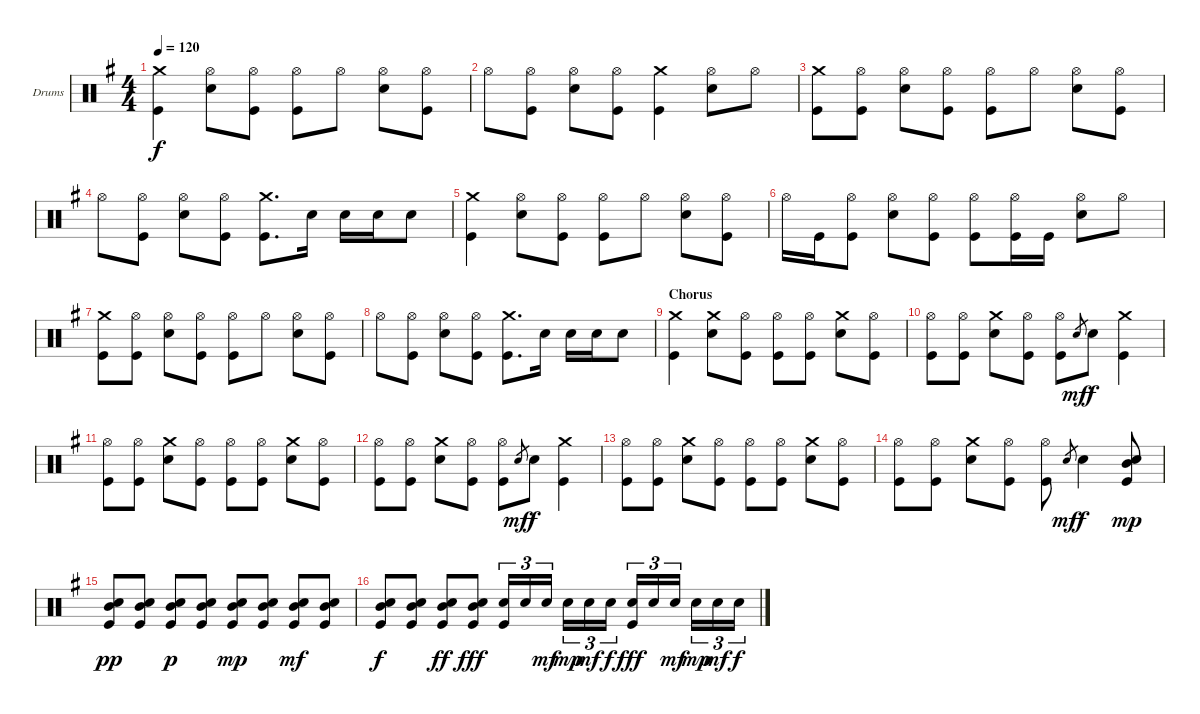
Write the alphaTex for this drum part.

\defaultSystemsLayout 4
\bracketExtendMode groupsimilarinstruments
\firstSystemTrackNameOrientation horizontal
\otherSystemsTrackNameOrientation horizontal
\track ("Drumkit" "Drums") {instrument percussion}
\staff {score}
\articulation defaults
\ts (4 4)
\tempo 120
\clef neutral
\scale
1.04288
\ks g
("Crash medium (hit)" "Kick (hit)").4{dy f} ("Hi-Hat (open)" "Snare (hit) 2").8 ("Hi-Hat (open)" "Kick (hit)").8 ("Hi-Hat (open)" "Kick (hit)").8 "Hi-Hat (open)".8 ("Hi-Hat (open)" "Snare (hit) 2").8 ("Hi-Hat (open)" "Kick (hit)").8 |
\scale
0.957125 "Hi-Hat (open)".8 ("Hi-Hat (open)" "Kick (hit)").8 ("Hi-Hat (open)" "Snare (hit) 2").8 ("Hi-Hat (open)" "Kick (hit)").8 ("Crash medium (hit)" "Kick (hit)").4 ("Hi-Hat (open)" "Snare (hit) 2").8 "Hi-Hat (open)".8 |
\scale
1.04288 ("Crash medium (hit)" "Kick (hit)").8 ("Hi-Hat (open)" "Kick (hit)").8 ("Hi-Hat (open)" "Snare (hit) 2").8 ("Hi-Hat (open)" "Kick (hit)").8 ("Hi-Hat (open)" "Kick (hit)").8 "Hi-Hat (open)".8 ("Hi-Hat (open)" "Snare (hit) 2").8 ("Hi-Hat (open)" "Kick (hit)").8 |
\scale
0.957125 "Hi-Hat (open)".8 ("Hi-Hat (open)" "Kick (hit)").8 ("Hi-Hat (open)" "Snare (hit) 2").8 ("Hi-Hat (open)" "Kick (hit)").8 ("Crash medium (hit)" "Kick (hit)").8{d} "Snare (hit) 2".16 "Snare (hit) 2".16 "Snare (hit) 2".16 "Snare (hit) 2".8 |
\scale
1.04288 ("Crash medium (hit)" "Kick (hit)").4 ("Hi-Hat (open)" "Snare (hit) 2").8 ("Hi-Hat (open)" "Kick (hit)").8 ("Hi-Hat (open)" "Kick (hit)").8 "Hi-Hat (open)".8 ("Hi-Hat (open)" "Snare (hit) 2").8 ("Hi-Hat (open)" "Kick (hit)").8 |
\scale
0.957125 "Hi-Hat (open)".16 "Kick (hit)".16 ("Hi-Hat (open)" "Kick (hit)").8 ("Hi-Hat (open)" "Snare (hit) 2").8 ("Hi-Hat (open)" "Kick (hit)").8 ("Hi-Hat (open)" "Kick (hit)").8 ("Hi-Hat (open)" "Kick (hit)").16 "Kick (hit)".16 ("Hi-Hat (open)" "Snare (hit) 2").8 "Hi-Hat (open)".8 |
\scale
1.04288 ("Crash medium (hit)" "Kick (hit)").8 ("Hi-Hat (open)" "Kick (hit)").8 ("Hi-Hat (open)" "Snare (hit) 2").8 ("Hi-Hat (open)" "Kick (hit)").8 ("Hi-Hat (open)" "Kick (hit)").8 "Hi-Hat (open)".8 ("Hi-Hat (open)" "Snare (hit) 2").8 ("Hi-Hat (open)" "Kick (hit)").8 |
\scale
0.957125 "Hi-Hat (open)".8 ("Hi-Hat (open)" "Kick (hit)").8 ("Hi-Hat (open)" "Snare (hit) 2").8 ("Hi-Hat (open)" "Kick (hit)").8 ("Crash medium (hit)" "Kick (hit)").8{d} "Snare (hit) 2".16 "Snare (hit) 2".16 "Snare (hit) 2".16 "Snare (hit) 2".8 |
\section ("" "Chorus")
\scale
1.04288 ("Crash medium (hit)" "Kick (hit)").4 ("Crash medium (hit)" "Snare (hit) 2").8 ("Hi-Hat (open)" "Kick (hit)").8 ("Hi-Hat (open)" "Kick (hit)").8 ("Hi-Hat (open)" "Kick (hit)").8 ("Crash medium (hit)" "Snare (hit) 2").8 ("Hi-Hat (open)" "Kick (hit)").8 |
\scale
0.957125 ("Hi-Hat (open)" "Kick (hit)").8 ("Hi-Hat (open)" "Kick (hit)").8 ("Crash medium (hit)" "Snare (hit) 2").8 ("Hi-Hat (open)" "Kick (hit)").8 ("Hi-Hat (open)" "Kick (hit)").8 "Snare (hit) 2".8{gr dy mf} "Snare (hit) 2".8{dy f} ("Crash medium (hit)" "Kick (hit)").4 |
\scale
1.04288 ("Hi-Hat (open)" "Kick (hit)").8 ("Hi-Hat (open)" "Kick (hit)").8 ("Crash medium (hit)" "Snare (hit) 2").8 ("Hi-Hat (open)" "Kick (hit)").8 ("Hi-Hat (open)" "Kick (hit)").8 ("Hi-Hat (open)" "Kick (hit)").8 ("Crash medium (hit)" "Snare (hit) 2").8 ("Hi-Hat (open)" "Kick (hit)").8 |
\scale
0.957125 ("Hi-Hat (open)" "Kick (hit)").8 ("Hi-Hat (open)" "Kick (hit)").8 ("Crash medium (hit)" "Snare (hit) 2").8 ("Hi-Hat (open)" "Kick (hit)").8 ("Hi-Hat (open)" "Kick (hit)").8 "Snare (hit) 2".8{gr dy mf} "Snare (hit) 2".8{dy f} ("Crash medium (hit)" "Kick (hit)").4 |
\scale
1.04288 ("Hi-Hat (open)" "Kick (hit)").8 ("Hi-Hat (open)" "Kick (hit)").8 ("Crash medium (hit)" "Snare (hit) 2").8 ("Hi-Hat (open)" "Kick (hit)").8 ("Hi-Hat (open)" "Kick (hit)").8 ("Hi-Hat (open)" "Kick (hit)").8 ("Crash medium (hit)" "Snare (hit) 2").8 ("Hi-Hat (open)" "Kick (hit)").8 |
\scale
0.957125 ("Hi-Hat (open)" "Kick (hit)").8 ("Hi-Hat (open)" "Kick (hit)").8 ("Crash medium (hit)" "Snare (hit) 2").8 ("Hi-Hat (open)" "Kick (hit)").8 ("Hi-Hat (open)" "Kick (hit)").8 "Snare (hit) 2".8{gr dy mf} "Snare (hit) 2".4{dy f} ("Mid Tom (hit)" "Snare (hit) 2" "Kick (hit)").8{dy mp} |
\scale
1.04288 ("Mid Tom (hit)" "Snare (hit) 2" "Kick (hit)").8{dy pp} ("Mid Tom (hit)" "Snare (hit) 2" "Kick (hit)").8 ("Mid Tom (hit)" "Snare (hit) 2" "Kick (hit)").8{dy p} ("Mid Tom (hit)" "Snare (hit) 2" "Kick (hit)").8 ("Mid Tom (hit)" "Snare (hit) 2" "Kick (hit)").8{dy mp} ("Mid Tom (hit)" "Snare (hit) 2" "Kick (hit)").8 ("Mid Tom (hit)" "Snare (hit) 2" "Kick (hit)").8{dy mf} ("Mid Tom (hit)" "Snare (hit) 2" "Kick (hit)").8 |
\scale
0.957125 ("Mid Tom (hit)" "Snare (hit) 2" "Kick (hit)").8{dy f} ("Mid Tom (hit)" "Snare (hit) 2" "Kick (hit)").8 ("Mid Tom (hit)" "Snare (hit) 2" "Kick (hit)").8{dy ff} ("Mid Tom (hit)" "Snare (hit) 2" "Kick (hit)").8{dy fff} ("Snare (hit) 2" "Kick (hit)").16{tu (3 2)} "Snare (hit) 2".16{tu (3 2)} "Snare (hit) 2".16{tu (3 2) dy mf} "Snare (hit) 2".16{tu (3 2) dy mp} "Snare (hit) 2".16{tu (3 2) dy mf} "Snare (hit) 2".16{tu (3 2) dy f} ("Snare (hit) 2" "Kick (hit)").16{tu (3 2) dy fff} "Snare (hit) 2".16{tu (3 2)} "Snare (hit) 2".16{tu (3 2) dy mf} "Snare (hit) 2".16{tu (3 2) dy mp} "Snare (hit) 2".16{tu (3 2) dy mf} "Snare (hit) 2".16{tu (3 2) dy f}
